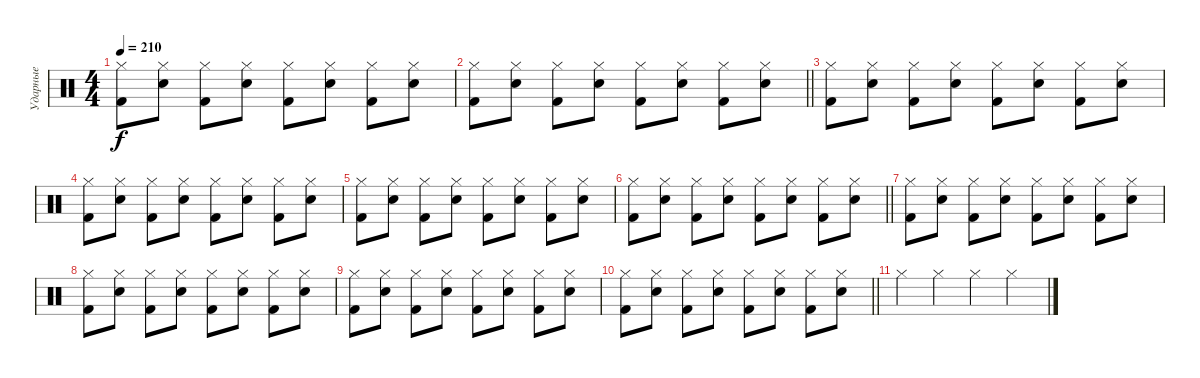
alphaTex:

\track ("Ударные" "Ударные") {instrument percussion}
\staff {score}
\articulation defaults
\ts (4 4)
\tempo 210
\clef neutral
\ks c
("Hi-Hat (closed)" "Kick (hit) 2").8{dy f} ("Hi-Hat (closed)" "Snare (hit) 2").8 ("Hi-Hat (closed)" "Kick (hit) 2").8 ("Hi-Hat (closed)" "Snare (hit) 2").8 ("Hi-Hat (closed)" "Kick (hit) 2").8 ("Hi-Hat (closed)" "Snare (hit) 2").8 ("Hi-Hat (closed)" "Kick (hit) 2").8 ("Hi-Hat (closed)" "Snare (hit) 2").8 |
\barLineRight lightlight
("Hi-Hat (closed)" "Kick (hit) 2").8 ("Hi-Hat (closed)" "Snare (hit) 2").8 ("Hi-Hat (closed)" "Kick (hit) 2").8 ("Hi-Hat (closed)" "Snare (hit) 2").8 ("Hi-Hat (closed)" "Kick (hit) 2").8 ("Hi-Hat (closed)" "Snare (hit) 2").8 ("Hi-Hat (closed)" "Kick (hit) 2").8 ("Hi-Hat (closed)" "Snare (hit) 2").8 |
("Hi-Hat (closed)" "Kick (hit) 2").8 ("Hi-Hat (closed)" "Snare (hit) 2").8 ("Hi-Hat (closed)" "Kick (hit) 2").8 ("Hi-Hat (closed)" "Snare (hit) 2").8 ("Hi-Hat (closed)" "Kick (hit) 2").8 ("Hi-Hat (closed)" "Snare (hit) 2").8 ("Hi-Hat (closed)" "Kick (hit) 2").8 ("Hi-Hat (closed)" "Snare (hit) 2").8 |
("Hi-Hat (closed)" "Kick (hit) 2").8 ("Hi-Hat (closed)" "Snare (hit) 2").8 ("Hi-Hat (closed)" "Kick (hit) 2").8 ("Hi-Hat (closed)" "Snare (hit) 2").8 ("Hi-Hat (closed)" "Kick (hit) 2").8 ("Hi-Hat (closed)" "Snare (hit) 2").8 ("Hi-Hat (closed)" "Kick (hit) 2").8 ("Hi-Hat (closed)" "Snare (hit) 2").8 |
("Hi-Hat (closed)" "Kick (hit) 2").8 ("Hi-Hat (closed)" "Snare (hit) 2").8 ("Hi-Hat (closed)" "Kick (hit) 2").8 ("Hi-Hat (closed)" "Snare (hit) 2").8 ("Hi-Hat (closed)" "Kick (hit) 2").8 ("Hi-Hat (closed)" "Snare (hit) 2").8 ("Hi-Hat (closed)" "Kick (hit) 2").8 ("Hi-Hat (closed)" "Snare (hit) 2").8 |
\barLineRight lightlight
("Hi-Hat (closed)" "Kick (hit) 2").8 ("Hi-Hat (closed)" "Snare (hit) 2").8 ("Hi-Hat (closed)" "Kick (hit) 2").8 ("Hi-Hat (closed)" "Snare (hit) 2").8 ("Hi-Hat (closed)" "Kick (hit) 2").8 ("Hi-Hat (closed)" "Snare (hit) 2").8 ("Hi-Hat (closed)" "Kick (hit) 2").8 ("Hi-Hat (closed)" "Snare (hit) 2").8 |
("Hi-Hat (closed)" "Kick (hit) 2").8 ("Hi-Hat (closed)" "Snare (hit) 2").8 ("Hi-Hat (closed)" "Kick (hit) 2").8 ("Hi-Hat (closed)" "Snare (hit) 2").8 ("Hi-Hat (closed)" "Kick (hit) 2").8 ("Hi-Hat (closed)" "Snare (hit) 2").8 ("Hi-Hat (closed)" "Kick (hit) 2").8 ("Hi-Hat (closed)" "Snare (hit) 2").8 |
("Hi-Hat (closed)" "Kick (hit) 2").8 ("Hi-Hat (closed)" "Snare (hit) 2").8 ("Hi-Hat (closed)" "Kick (hit) 2").8 ("Hi-Hat (closed)" "Snare (hit) 2").8 ("Hi-Hat (closed)" "Kick (hit) 2").8 ("Hi-Hat (closed)" "Snare (hit) 2").8 ("Hi-Hat (closed)" "Kick (hit) 2").8 ("Hi-Hat (closed)" "Snare (hit) 2").8 |
("Hi-Hat (closed)" "Kick (hit) 2").8 ("Hi-Hat (closed)" "Snare (hit) 2").8 ("Hi-Hat (closed)" "Kick (hit) 2").8 ("Hi-Hat (closed)" "Snare (hit) 2").8 ("Hi-Hat (closed)" "Kick (hit) 2").8 ("Hi-Hat (closed)" "Snare (hit) 2").8 ("Hi-Hat (closed)" "Kick (hit) 2").8 ("Hi-Hat (closed)" "Snare (hit) 2").8 |
\barLineRight lightlight
("Hi-Hat (closed)" "Kick (hit) 2").8 ("Hi-Hat (closed)" "Snare (hit) 2").8 ("Hi-Hat (closed)" "Kick (hit) 2").8 ("Hi-Hat (closed)" "Snare (hit) 2").8 ("Hi-Hat (closed)" "Kick (hit) 2").8 ("Hi-Hat (closed)" "Snare (hit) 2").8 ("Hi-Hat (closed)" "Kick (hit) 2").8 ("Hi-Hat (closed)" "Snare (hit) 2").8 |
"Hi-Hat (closed)".4 "Hi-Hat (closed)".4 "Hi-Hat (closed)".4 "Hi-Hat (closed)".4
